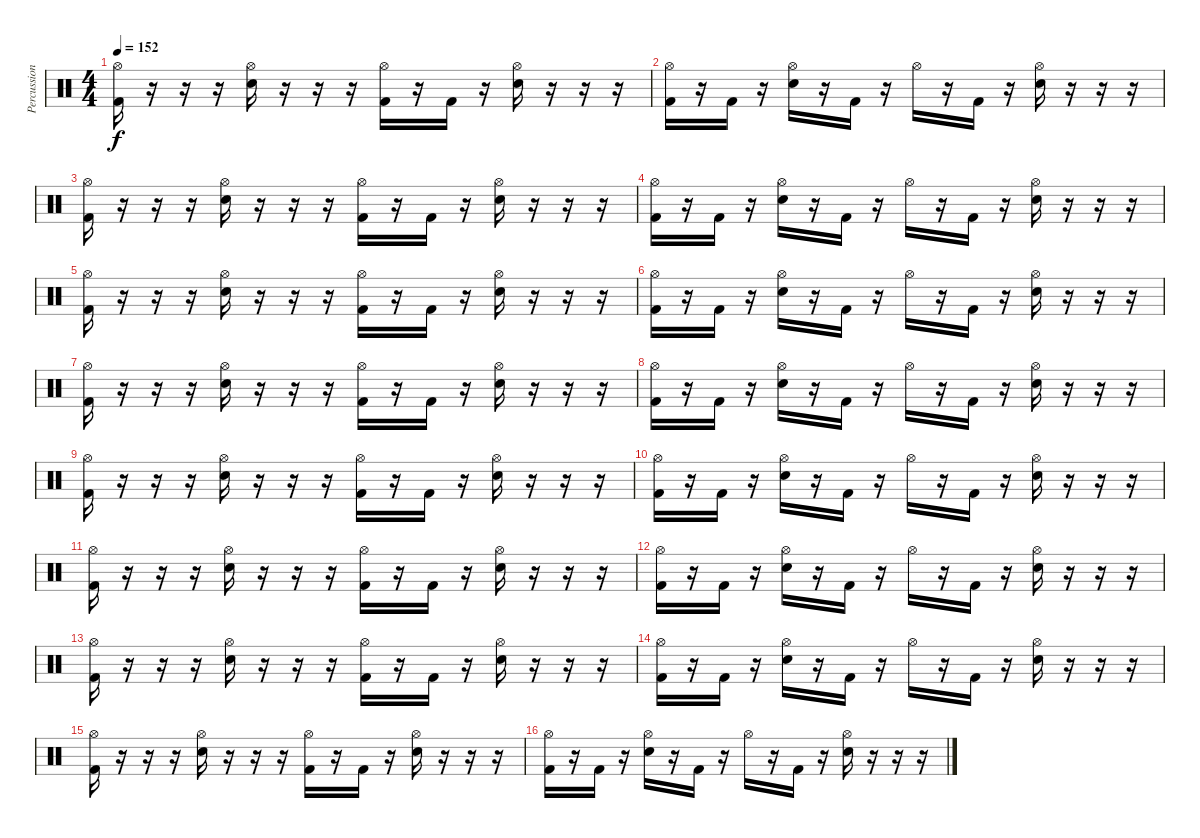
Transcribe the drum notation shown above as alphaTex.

\track ("Percussions" "Percussion") {instrument percussion}
\staff {score}
\articulation defaults
\ts (4 4)
\tempo 152
\clef neutral
\ks c
("Kick (hit) 2" "Hi-Hat (open)").16{dy f} r.16 r.16 r.16 ("Electric Snare (hit)" "Hi-Hat (open)").16 r.16 r.16 r.16 ("Kick (hit) 2" "Hi-Hat (open)").16 r.16 "Kick (hit) 2".16 r.16 ("Electric Snare (hit)" "Hi-Hat (open)").16 r.16 r.16 r.16 |
("Kick (hit) 2" "Hi-Hat (open)").16 r.16 "Kick (hit) 2".16 r.16 ("Electric Snare (hit)" "Hi-Hat (open)").16 r.16 "Kick (hit) 2".16 r.16 "Hi-Hat (open)".16 r.16 "Kick (hit) 2".16 r.16 ("Electric Snare (hit)" "Hi-Hat (open)").16 r.16 r.16 r.16 |
("Kick (hit) 2" "Hi-Hat (open)").16 r.16 r.16 r.16 ("Electric Snare (hit)" "Hi-Hat (open)").16 r.16 r.16 r.16 ("Kick (hit) 2" "Hi-Hat (open)").16 r.16 "Kick (hit) 2".16 r.16 ("Electric Snare (hit)" "Hi-Hat (open)").16 r.16 r.16 r.16 |
("Kick (hit) 2" "Hi-Hat (open)").16 r.16 "Kick (hit) 2".16 r.16 ("Electric Snare (hit)" "Hi-Hat (open)").16 r.16 "Kick (hit) 2".16 r.16 "Hi-Hat (open)".16 r.16 "Kick (hit) 2".16 r.16 ("Electric Snare (hit)" "Hi-Hat (open)").16 r.16 r.16 r.16 |
("Kick (hit) 2" "Hi-Hat (open)").16 r.16 r.16 r.16 ("Electric Snare (hit)" "Hi-Hat (open)").16 r.16 r.16 r.16 ("Kick (hit) 2" "Hi-Hat (open)").16 r.16 "Kick (hit) 2".16 r.16 ("Electric Snare (hit)" "Hi-Hat (open)").16 r.16 r.16 r.16 |
("Kick (hit) 2" "Hi-Hat (open)").16 r.16 "Kick (hit) 2".16 r.16 ("Electric Snare (hit)" "Hi-Hat (open)").16 r.16 "Kick (hit) 2".16 r.16 "Hi-Hat (open)".16 r.16 "Kick (hit) 2".16 r.16 ("Electric Snare (hit)" "Hi-Hat (open)").16 r.16 r.16 r.16 |
("Kick (hit) 2" "Hi-Hat (open)").16 r.16 r.16 r.16 ("Electric Snare (hit)" "Hi-Hat (open)").16 r.16 r.16 r.16 ("Kick (hit) 2" "Hi-Hat (open)").16 r.16 "Kick (hit) 2".16 r.16 ("Electric Snare (hit)" "Hi-Hat (open)").16 r.16 r.16 r.16 |
("Kick (hit) 2" "Hi-Hat (open)").16 r.16 "Kick (hit) 2".16 r.16 ("Electric Snare (hit)" "Hi-Hat (open)").16 r.16 "Kick (hit) 2".16 r.16 "Hi-Hat (open)".16 r.16 "Kick (hit) 2".16 r.16 ("Electric Snare (hit)" "Hi-Hat (open)").16 r.16 r.16 r.16 |
("Kick (hit) 2" "Hi-Hat (open)").16 r.16 r.16 r.16 ("Electric Snare (hit)" "Hi-Hat (open)").16 r.16 r.16 r.16 ("Kick (hit) 2" "Hi-Hat (open)").16 r.16 "Kick (hit) 2".16 r.16 ("Electric Snare (hit)" "Hi-Hat (open)").16 r.16 r.16 r.16 |
("Kick (hit) 2" "Hi-Hat (open)").16 r.16 "Kick (hit) 2".16 r.16 ("Electric Snare (hit)" "Hi-Hat (open)").16 r.16 "Kick (hit) 2".16 r.16 "Hi-Hat (open)".16 r.16 "Kick (hit) 2".16 r.16 ("Electric Snare (hit)" "Hi-Hat (open)").16 r.16 r.16 r.16 |
("Kick (hit) 2" "Hi-Hat (open)").16 r.16 r.16 r.16 ("Electric Snare (hit)" "Hi-Hat (open)").16 r.16 r.16 r.16 ("Kick (hit) 2" "Hi-Hat (open)").16 r.16 "Kick (hit) 2".16 r.16 ("Electric Snare (hit)" "Hi-Hat (open)").16 r.16 r.16 r.16 |
("Kick (hit) 2" "Hi-Hat (open)").16 r.16 "Kick (hit) 2".16 r.16 ("Electric Snare (hit)" "Hi-Hat (open)").16 r.16 "Kick (hit) 2".16 r.16 "Hi-Hat (open)".16 r.16 "Kick (hit) 2".16 r.16 ("Electric Snare (hit)" "Hi-Hat (open)").16 r.16 r.16 r.16 |
("Kick (hit) 2" "Hi-Hat (open)").16 r.16 r.16 r.16 ("Electric Snare (hit)" "Hi-Hat (open)").16 r.16 r.16 r.16 ("Kick (hit) 2" "Hi-Hat (open)").16 r.16 "Kick (hit) 2".16 r.16 ("Electric Snare (hit)" "Hi-Hat (open)").16 r.16 r.16 r.16 |
("Kick (hit) 2" "Hi-Hat (open)").16 r.16 "Kick (hit) 2".16 r.16 ("Electric Snare (hit)" "Hi-Hat (open)").16 r.16 "Kick (hit) 2".16 r.16 "Hi-Hat (open)".16 r.16 "Kick (hit) 2".16 r.16 ("Electric Snare (hit)" "Hi-Hat (open)").16 r.16 r.16 r.16 |
("Kick (hit) 2" "Hi-Hat (open)").16 r.16 r.16 r.16 ("Electric Snare (hit)" "Hi-Hat (open)").16 r.16 r.16 r.16 ("Kick (hit) 2" "Hi-Hat (open)").16 r.16 "Kick (hit) 2".16 r.16 ("Electric Snare (hit)" "Hi-Hat (open)").16 r.16 r.16 r.16 |
("Kick (hit) 2" "Hi-Hat (open)").16 r.16 "Kick (hit) 2".16 r.16 ("Electric Snare (hit)" "Hi-Hat (open)").16 r.16 "Kick (hit) 2".16 r.16 "Hi-Hat (open)".16 r.16 "Kick (hit) 2".16 r.16 ("Electric Snare (hit)" "Hi-Hat (open)").16 r.16 r.16 r.16
